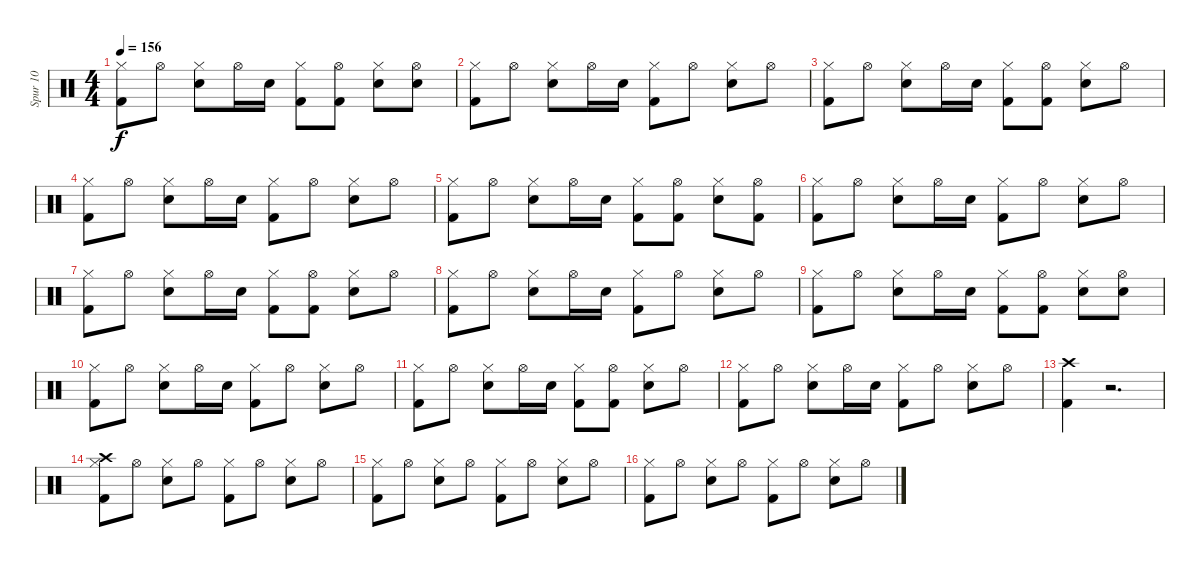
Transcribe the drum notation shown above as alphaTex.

\track ("Spur 10" "Spur 10") {instrument percussion}
\staff {score}
\articulation defaults
\ts (4 4)
\tempo 156
\clef neutral
\ks c
("Hi-Hat (closed)" "Kick (hit) 2").8{dy f} "Hi-Hat (open)".8 ("Hi-Hat (closed)" "Electric Snare (hit)").8 "Hi-Hat (open)".16 "Electric Snare (hit)".16 ("Hi-Hat (closed)" "Kick (hit) 2").8 ("Hi-Hat (open)" "Kick (hit) 2").8 ("Hi-Hat (closed)" "Electric Snare (hit)").8 ("Hi-Hat (open)" "Electric Snare (hit)").8 |
("Hi-Hat (closed)" "Kick (hit) 2").8 "Hi-Hat (open)".8 ("Hi-Hat (closed)" "Electric Snare (hit)").8 "Hi-Hat (open)".16 "Electric Snare (hit)".16 ("Hi-Hat (closed)" "Kick (hit) 2").8 "Hi-Hat (open)".8 ("Hi-Hat (closed)" "Electric Snare (hit)").8 "Hi-Hat (open)".8 |
("Hi-Hat (closed)" "Kick (hit) 2").8 "Hi-Hat (open)".8 ("Hi-Hat (closed)" "Electric Snare (hit)").8 "Hi-Hat (open)".16 "Electric Snare (hit)".16 ("Hi-Hat (closed)" "Kick (hit) 2").8 ("Hi-Hat (open)" "Kick (hit) 2").8 ("Hi-Hat (closed)" "Electric Snare (hit)").8 "Hi-Hat (open)".8 |
("Hi-Hat (closed)" "Kick (hit) 2").8 "Hi-Hat (open)".8 ("Hi-Hat (closed)" "Electric Snare (hit)").8 "Hi-Hat (open)".16 "Electric Snare (hit)".16 ("Hi-Hat (closed)" "Kick (hit) 2").8 "Hi-Hat (open)".8 ("Hi-Hat (closed)" "Electric Snare (hit)").8 "Hi-Hat (open)".8 |
("Hi-Hat (closed)" "Kick (hit) 2").8 "Hi-Hat (open)".8 ("Hi-Hat (closed)" "Electric Snare (hit)").8 "Hi-Hat (open)".16 "Electric Snare (hit)".16 ("Hi-Hat (closed)" "Kick (hit) 2").8 ("Hi-Hat (open)" "Kick (hit) 2").8 ("Hi-Hat (closed)" "Electric Snare (hit)").8 ("Hi-Hat (open)" "Kick (hit) 2").8 |
("Hi-Hat (closed)" "Kick (hit) 2").8 "Hi-Hat (open)".8 ("Hi-Hat (closed)" "Electric Snare (hit)").8 "Hi-Hat (open)".16 "Electric Snare (hit)".16 ("Hi-Hat (closed)" "Kick (hit) 2").8 "Hi-Hat (open)".8 ("Hi-Hat (closed)" "Electric Snare (hit)").8 "Hi-Hat (open)".8 |
("Hi-Hat (closed)" "Kick (hit) 2").8 "Hi-Hat (open)".8 ("Hi-Hat (closed)" "Electric Snare (hit)").8 "Hi-Hat (open)".16 "Electric Snare (hit)".16 ("Hi-Hat (closed)" "Kick (hit) 2").8 ("Hi-Hat (open)" "Kick (hit) 2").8 ("Hi-Hat (closed)" "Electric Snare (hit)").8 "Hi-Hat (open)".8 |
("Hi-Hat (closed)" "Kick (hit) 2").8 "Hi-Hat (open)".8 ("Hi-Hat (closed)" "Electric Snare (hit)").8 "Hi-Hat (open)".16 "Electric Snare (hit)".16 ("Hi-Hat (closed)" "Kick (hit) 2").8 "Hi-Hat (open)".8 ("Hi-Hat (closed)" "Electric Snare (hit)").8 "Hi-Hat (open)".8 |
("Hi-Hat (closed)" "Kick (hit) 2").8 "Hi-Hat (open)".8 ("Hi-Hat (closed)" "Electric Snare (hit)").8 "Hi-Hat (open)".16 "Electric Snare (hit)".16 ("Hi-Hat (closed)" "Kick (hit) 2").8 ("Hi-Hat (open)" "Kick (hit) 2").8 ("Hi-Hat (closed)" "Electric Snare (hit)").8 ("Hi-Hat (open)" "Electric Snare (hit)").8 |
("Hi-Hat (closed)" "Kick (hit) 2").8 "Hi-Hat (open)".8 ("Hi-Hat (closed)" "Electric Snare (hit)").8 "Hi-Hat (open)".16 "Electric Snare (hit)".16 ("Hi-Hat (closed)" "Kick (hit) 2").8 "Hi-Hat (open)".8 ("Hi-Hat (closed)" "Electric Snare (hit)").8 "Hi-Hat (open)".8 |
("Hi-Hat (closed)" "Kick (hit) 2").8 "Hi-Hat (open)".8 ("Hi-Hat (closed)" "Electric Snare (hit)").8 "Hi-Hat (open)".16 "Electric Snare (hit)".16 ("Hi-Hat (closed)" "Kick (hit) 2").8 ("Hi-Hat (open)" "Kick (hit) 2").8 ("Hi-Hat (closed)" "Electric Snare (hit)").8 "Hi-Hat (open)".8 |
("Hi-Hat (closed)" "Kick (hit) 2").8 "Hi-Hat (open)".8 ("Hi-Hat (closed)" "Electric Snare (hit)").8 "Hi-Hat (open)".16 "Electric Snare (hit)".16 ("Hi-Hat (closed)" "Kick (hit) 2").8 "Hi-Hat (open)".8 ("Hi-Hat (closed)" "Electric Snare (hit)").8 "Hi-Hat (open)".8 |
("Kick (hit) 2" "Crash high (hit)").4 r.2{d} |
("Hi-Hat (closed)" "Kick (hit) 2" "Crash high (hit)").8 "Hi-Hat (open)".8 ("Hi-Hat (closed)" "Electric Snare (hit)").8 "Hi-Hat (open)".8 ("Hi-Hat (closed)" "Kick (hit) 2").8 "Hi-Hat (open)".8 ("Hi-Hat (closed)" "Electric Snare (hit)").8 "Hi-Hat (open)".8 |
("Hi-Hat (closed)" "Kick (hit) 2").8 "Hi-Hat (open)".8 ("Hi-Hat (closed)" "Electric Snare (hit)").8 "Hi-Hat (open)".8 ("Hi-Hat (closed)" "Kick (hit) 2").8 "Hi-Hat (open)".8 ("Hi-Hat (closed)" "Electric Snare (hit)").8 "Hi-Hat (open)".8 |
("Hi-Hat (closed)" "Kick (hit) 2").8 "Hi-Hat (open)".8 ("Hi-Hat (closed)" "Electric Snare (hit)").8 "Hi-Hat (open)".8 ("Hi-Hat (closed)" "Kick (hit) 2").8 "Hi-Hat (open)".8 ("Hi-Hat (closed)" "Electric Snare (hit)").8 "Hi-Hat (open)".8
